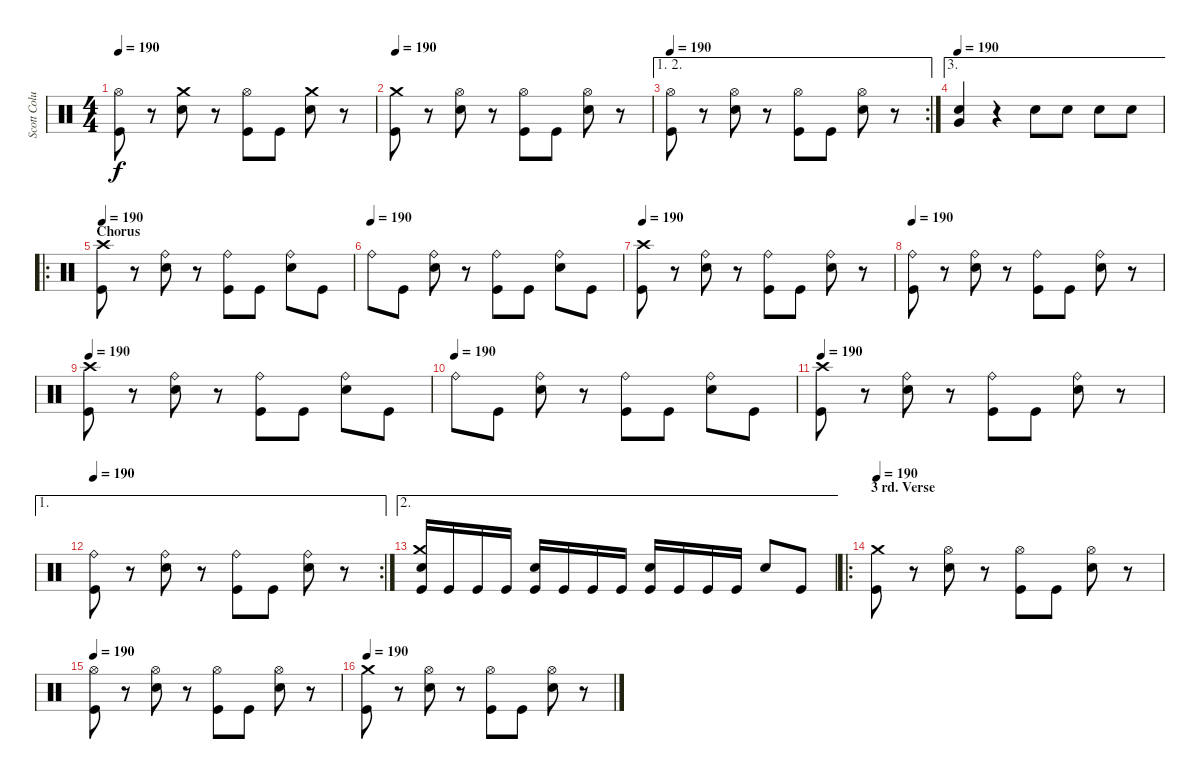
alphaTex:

\track ("Scott Columbus" "Scott Colu") {instrument percussion}
\staff {score}
\articulation defaults
\ts (4 4)
\tempo 190
\clef neutral
\ks c
("Hi-Hat (open)" "Kick (hit)").8{dy f} r.8 ("Crash medium (hit)" "Snare (hit) 2").8 r.8 ("Hi-Hat (open)" "Kick (hit)").8 "Kick (hit)".8 ("Crash medium (hit)" "Snare (hit) 2").8 r.8 |
\tempo 190
("Crash medium (hit)" "Kick (hit)").8 r.8 ("Hi-Hat (open)" "Snare (hit) 2").8 r.8 ("Hi-Hat (open)" "Kick (hit)").8 "Kick (hit)".8 ("Hi-Hat (open)" "Snare (hit) 2").8 r.8 |
\ae (1 2)
\rc 2
\tempo 190
("Hi-Hat (open)" "Kick (hit)").8 r.8 ("Hi-Hat (open)" "Snare (hit) 2").8 r.8 ("Hi-Hat (open)" "Kick (hit)").8 "Kick (hit)".8 ("Hi-Hat (open)" "Snare (hit) 2").8 r.8 |
\ae 3
\tempo 190
("Very Low Tom (hit)" "Snare (hit) 2").4 r.4 "Snare (hit) 2".8 "Snare (hit) 2".8 "Snare (hit) 2".8 "Snare (hit) 2".8 |
\ro
\section ("" "Chorus")
\tempo 190
("Crash high (hit)" "Kick (hit)").8 r.8 ("Ride (bell)" "Snare (hit) 2").8 r.8 ("Ride (bell)" "Kick (hit)").8 "Kick (hit)".8 ("Ride (bell)" "Snare (hit) 2").8 "Kick (hit)".8 |
\tempo (190)
"Ride (bell)".8 "Kick (hit)".8 ("Ride (bell)" "Snare (hit) 2").8 r.8 ("Ride (bell)" "Kick (hit)").8 "Kick (hit)".8 ("Ride (bell)" "Snare (hit) 2").8 "Kick (hit)".8 |
\tempo 190
("Crash high (hit)" "Kick (hit)").8 r.8 ("Ride (bell)" "Snare (hit) 2").8 r.8 ("Ride (bell)" "Kick (hit)").8 "Kick (hit)".8 ("Ride (bell)" "Snare (hit) 2").8 r.8 |
\tempo 190
("Ride (bell)" "Kick (hit)").8 r.8 ("Ride (bell)" "Snare (hit) 2").8 r.8 ("Ride (bell)" "Kick (hit)").8 "Kick (hit)".8 ("Ride (bell)" "Snare (hit) 2").8 r.8 |
\tempo 190
("Crash high (hit)" "Kick (hit)").8 r.8 ("Ride (bell)" "Snare (hit) 2").8 r.8 ("Ride (bell)" "Kick (hit)").8 "Kick (hit)".8 ("Ride (bell)" "Snare (hit) 2").8 "Kick (hit)".8 |
\tempo (190)
"Ride (bell)".8 "Kick (hit)".8 ("Ride (bell)" "Snare (hit) 2").8 r.8 ("Ride (bell)" "Kick (hit)").8 "Kick (hit)".8 ("Ride (bell)" "Snare (hit) 2").8 "Kick (hit)".8 |
\tempo 190
("Crash high (hit)" "Kick (hit)").8 r.8 ("Ride (bell)" "Snare (hit) 2").8 r.8 ("Ride (bell)" "Kick (hit)").8 "Kick (hit)".8 ("Ride (bell)" "Snare (hit) 2").8 r.8 |
\ae 1
\rc 2
\tempo 190
("Ride (bell)" "Kick (hit)").8 r.8 ("Ride (bell)" "Snare (hit) 2").8 r.8 ("Ride (bell)" "Kick (hit)").8 "Kick (hit)".8 ("Ride (bell)" "Snare (hit) 2").8 r.8 |
\ae 2
("Crash medium (hit)" "Snare (hit) 2" "Kick (hit)").16 "Kick (hit)".16 "Kick (hit)".16 "Kick (hit)".16 ("Snare (hit) 2" "Kick (hit)").16 "Kick (hit)".16 "Kick (hit)".16 "Kick (hit)".16 ("Snare (hit) 2" "Kick (hit)").16 "Kick (hit)".16 "Kick (hit)".16 "Kick (hit)".16 "Snare (hit) 2".8 "Kick (hit)".8 |
\ro
\section ("" "3 rd. Verse")
\tempo 190
("Crash medium (hit)" "Kick (hit)").8 r.8 ("Hi-Hat (open)" "Snare (hit) 2").8 r.8 ("Hi-Hat (open)" "Kick (hit)").8 "Kick (hit)".8 ("Hi-Hat (open)" "Snare (hit) 2").8 r.8 |
\tempo 190
("Hi-Hat (open)" "Kick (hit)").8 r.8 ("Hi-Hat (open)" "Snare (hit) 2").8 r.8 ("Hi-Hat (open)" "Kick (hit)").8 "Kick (hit)".8 ("Hi-Hat (open)" "Snare (hit) 2").8 r.8 |
\tempo 190
("Crash medium (hit)" "Kick (hit)").8 r.8 ("Hi-Hat (open)" "Snare (hit) 2").8 r.8 ("Hi-Hat (open)" "Kick (hit)").8 "Kick (hit)".8 ("Hi-Hat (open)" "Snare (hit) 2").8 r.8
